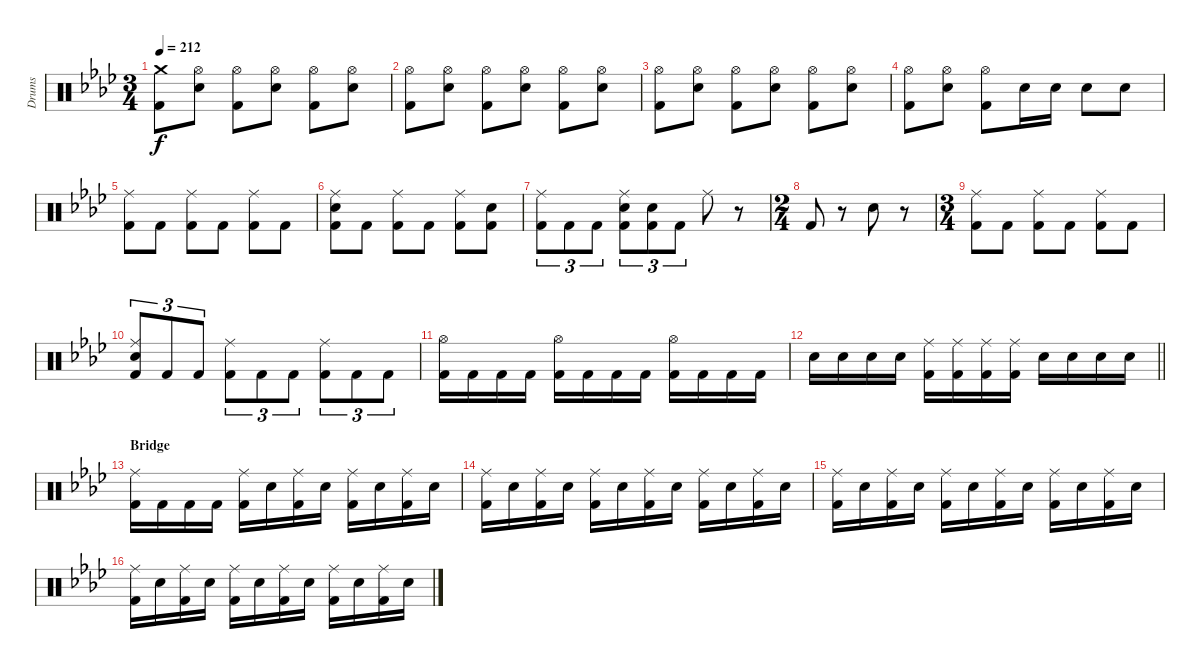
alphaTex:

\bracketExtendMode groupsimilarinstruments
\otherSystemsTrackNameOrientation horizontal
\track ("Guyot Begin-Benoit" "Drums") {instrument percussion}
\staff {score}
\articulation defaults
\ts (3 4)
\tempo 212
\clef neutral
\ks ab
("Crash medium (hit)"{acc forcenatural} "Kick (hit) 2"{acc forcenatural}).8{dy f beam Down} ("Hi-Hat (open)"{acc forcenatural} "Snare (hit) 2"{acc forcenatural}).8{beam Down} ("Hi-Hat (open)"{acc forcenatural} "Kick (hit) 2"{acc forcenatural}).8{beam Down} ("Hi-Hat (open)"{acc forcenatural} "Snare (hit) 2"{acc forcenatural}).8{beam Down} ("Hi-Hat (open)"{acc forcenatural} "Kick (hit) 2"{acc forcenatural}).8{beam Down} ("Hi-Hat (open)"{acc forcenatural} "Snare (hit) 2"{acc forcenatural}).8{beam Down} |
("Hi-Hat (open)"{acc forcenatural} "Kick (hit) 2"{acc forcenatural}).8{beam Down} ("Hi-Hat (open)"{acc forcenatural} "Snare (hit) 2"{acc forcenatural}).8{beam Down} ("Hi-Hat (open)"{acc forcenatural} "Kick (hit) 2"{acc forcenatural}).8{beam Down} ("Hi-Hat (open)"{acc forcenatural} "Snare (hit) 2"{acc forcenatural}).8{beam Down} ("Hi-Hat (open)"{acc forcenatural} "Kick (hit) 2"{acc forcenatural}).8{beam Down} ("Hi-Hat (open)"{acc forcenatural} "Snare (hit) 2"{acc forcenatural}).8{beam Down} |
("Hi-Hat (open)"{acc forcenatural} "Kick (hit) 2"{acc forcenatural}).8{beam Down} ("Hi-Hat (open)"{acc forcenatural} "Snare (hit) 2"{acc forcenatural}).8{beam Down} ("Hi-Hat (open)"{acc forcenatural} "Kick (hit) 2"{acc forcenatural}).8{beam Down} ("Hi-Hat (open)"{acc forcenatural} "Snare (hit) 2"{acc forcenatural}).8{beam Down} ("Hi-Hat (open)"{acc forcenatural} "Kick (hit) 2"{acc forcenatural}).8{beam Down} ("Hi-Hat (open)"{acc forcenatural} "Snare (hit) 2"{acc forcenatural}).8{beam Down} |
("Hi-Hat (open)"{acc forcenatural} "Kick (hit) 2"{acc forcenatural}).8{beam Down} ("Hi-Hat (open)"{acc forcenatural} "Snare (hit) 2"{acc forcenatural}).8{beam Down} ("Hi-Hat (open)"{acc forcenatural} "Kick (hit) 2"{acc forcenatural}).8{beam Down} "Snare (hit) 2"{acc forcenatural}.16{beam Down} "Snare (hit) 2"{acc forcenatural}.16{beam Down} "Snare (hit) 2"{acc forcenatural}.8{beam Down} "Snare (hit) 2"{acc forcenatural}.8{beam Down} |
("Ride (middle)"{acc forcenatural} "Kick (hit) 2"{acc forcenatural}).8{beam Down} "Kick (hit) 2"{acc forcenatural}.8{beam Down} ("Ride (middle)"{acc forcenatural} "Kick (hit) 2"{acc forcenatural}).8{beam Down} "Kick (hit) 2"{acc forcenatural}.8{beam Down} ("Ride (middle)"{acc forcenatural} "Kick (hit) 2"{acc forcenatural}).8{beam Down} "Kick (hit) 2"{acc forcenatural}.8{beam Down} |
("Ride (middle)"{acc forcenatural} "Snare (hit) 2"{acc forcenatural} "Kick (hit) 2"{acc forcenatural}).8{beam Down} "Kick (hit) 2"{acc forcenatural}.8{beam Down} ("Ride (middle)"{acc forcenatural} "Kick (hit) 2"{acc forcenatural}).8{beam Down} "Kick (hit) 2"{acc forcenatural}.8{beam Down} ("Ride (middle)"{acc forcenatural} "Kick (hit) 2"{acc forcenatural}).8{beam Down} ("Snare (hit) 2"{acc forcenatural} "Kick (hit) 2"{acc forcenatural}).8{beam Down} |
("Ride (middle)"{acc forcenatural} "Kick (hit) 2"{acc forcenatural}).8{tu (3 2) beam Down} "Kick (hit) 2"{acc forcenatural}.8{tu (3 2) beam Down} "Kick (hit) 2"{acc forcenatural}.8{tu (3 2) beam Down} ("Ride (middle)"{acc forcenatural} "Snare (hit) 2"{acc forcenatural} "Kick (hit) 2"{acc forcenatural}).8{tu (3 2) beam Down} ("Snare (hit) 2"{acc forcenatural} "Kick (hit) 2"{acc forcenatural}).8{tu (3 2) beam Down} "Kick (hit) 2"{acc forcenatural}.8{tu (3 2) beam Down} "Ride (middle)"{acc forcenatural}.8{beam Down} r.8{beam Down} |
\ts (2 4)
\beaming (8 2 2 2 2)
"Kick (hit) 2"{acc forcenatural}.8{beam Up} r.8{beam Up} "Snare (hit) 2"{acc forcenatural}.8{beam Down} r.8{beam Down} |
\ts (3 4)
\beaming (8 2 2 2 2)
("Ride (middle)"{acc forcenatural} "Kick (hit) 2"{acc forcenatural}).8{beam Down} "Kick (hit) 2"{acc forcenatural}.8{beam Down} ("Ride (middle)"{acc forcenatural} "Kick (hit) 2"{acc forcenatural}).8{beam Down} "Kick (hit) 2"{acc forcenatural}.8{beam Down} ("Ride (middle)"{acc forcenatural} "Kick (hit) 2"{acc forcenatural}).8{beam Down} "Kick (hit) 2"{acc forcenatural}.8{beam Down} |
("Ride (middle)"{acc forcenatural} "Snare (hit) 2"{acc forcenatural} "Kick (hit) 2"{acc forcenatural}).8{tu (3 2) beam Up} "Kick (hit) 2"{acc forcenatural}.8{tu (3 2) beam Up} "Kick (hit) 2"{acc forcenatural}.8{tu (3 2) beam Up} ("Ride (middle)"{acc forcenatural} "Kick (hit) 2"{acc forcenatural}).8{tu (3 2) beam Down} "Kick (hit) 2"{acc forcenatural}.8{tu (3 2) beam Down} "Kick (hit) 2"{acc forcenatural}.8{tu (3 2) beam Down} ("Ride (middle)"{acc forcenatural} "Kick (hit) 2"{acc forcenatural}).8{tu (3 2) beam Down} "Kick (hit) 2"{acc forcenatural}.8{tu (3 2) beam Down} "Kick (hit) 2"{acc forcenatural}.8{tu (3 2) beam Down} |
("Hi-Hat (open)"{acc forcenatural} "Kick (hit) 2"{acc forcenatural}).16{beam Down} "Kick (hit) 2"{acc forcenatural}.16{beam Down} "Kick (hit) 2"{acc forcenatural}.16{beam Down} "Kick (hit) 2"{acc forcenatural}.16{beam Down} ("Hi-Hat (open)"{acc forcenatural} "Kick (hit) 2"{acc forcenatural}).16{beam Down} "Kick (hit) 2"{acc forcenatural}.16{beam Down} "Kick (hit) 2"{acc forcenatural}.16{beam Down} "Kick (hit) 2"{acc forcenatural}.16{beam Down} ("Hi-Hat (open)"{acc forcenatural} "Kick (hit) 2"{acc forcenatural}).16{beam Down} "Kick (hit) 2"{acc forcenatural}.16{beam Down} "Kick (hit) 2"{acc forcenatural}.16{beam Down} "Kick (hit) 2"{acc forcenatural}.16{beam Down} |
\barLineRight lightlight "Snare (hit) 2"{acc forcenatural}.16{beam Down} "Snare (hit) 2"{acc forcenatural}.16{beam Down} "Snare (hit) 2"{acc forcenatural}.16{beam Down} "Snare (hit) 2"{acc forcenatural}.16{beam Down}
("Ride (middle)"{acc forcenatural} "Kick (hit) 2"{acc forcenatural}).16{beam Down} ("Ride (middle)"{acc forcenatural} "Kick (hit) 2"{acc forcenatural}).16{beam Down} ("Ride (middle)"{acc forcenatural} "Kick (hit) 2"{acc forcenatural}).16{beam Down} ("Ride (middle)"{acc forcenatural} "Kick (hit) 2"{acc forcenatural}).16{beam Down} "Snare (hit) 2"{acc forcenatural}.16{beam Down} "Snare (hit) 2"{acc forcenatural}.16{beam Down} "Snare (hit) 2"{acc forcenatural}.16{beam Down} "Snare (hit) 2"{acc forcenatural}.16{beam Down} |
\section ("" "Bridge")
("Ride (middle)"{acc forcenatural} "Kick (hit) 2"{acc forcenatural}).16{beam Down} "Kick (hit) 2"{acc forcenatural}.16{beam Down} "Kick (hit) 2"{acc forcenatural}.16{beam Down} "Kick (hit) 2"{acc forcenatural}.16{beam Down} ("Ride (middle)"{acc forcenatural} "Kick (hit) 2"{acc forcenatural}).16{beam Down} "Snare (hit) 2"{acc forcenatural}.16{beam Down} ("Ride (middle)"{acc forcenatural} "Kick (hit) 2"{acc forcenatural}).16{beam Down} "Snare (hit) 2"{acc forcenatural}.16{beam Down} ("Ride (middle)"{acc forcenatural} "Kick (hit) 2"{acc forcenatural}).16{beam Down} "Snare (hit) 2"{acc forcenatural}.16{beam Down} ("Ride (middle)"{acc forcenatural} "Kick (hit) 2"{acc forcenatural}).16{beam Down} "Snare (hit) 2"{acc forcenatural}.16{beam Down} |
("Ride (middle)"{acc forcenatural} "Kick (hit) 2"{acc forcenatural}).16{beam Down} "Snare (hit) 2"{acc forcenatural}.16{beam Down} ("Ride (middle)"{acc forcenatural} "Kick (hit) 2"{acc forcenatural}).16{beam Down} "Snare (hit) 2"{acc forcenatural}.16{beam Down} ("Ride (middle)"{acc forcenatural} "Kick (hit) 2"{acc forcenatural}).16{beam Down} "Snare (hit) 2"{acc forcenatural}.16{beam Down} ("Ride (middle)"{acc forcenatural} "Kick (hit) 2"{acc forcenatural}).16{beam Down} "Snare (hit) 2"{acc forcenatural}.16{beam Down} ("Ride (middle)"{acc forcenatural} "Kick (hit) 2"{acc forcenatural}).16{beam Down} "Snare (hit) 2"{acc forcenatural}.16{beam Down} ("Ride (middle)"{acc forcenatural} "Kick (hit) 2"{acc forcenatural}).16{beam Down} "Snare (hit) 2"{acc forcenatural}.16{beam Down} |
("Ride (middle)"{acc forcenatural} "Kick (hit) 2"{acc forcenatural}).16{beam Down} "Snare (hit) 2"{acc forcenatural}.16{beam Down} ("Ride (middle)"{acc forcenatural} "Kick (hit) 2"{acc forcenatural}).16{beam Down} "Snare (hit) 2"{acc forcenatural}.16{beam Down} ("Ride (middle)"{acc forcenatural} "Kick (hit) 2"{acc forcenatural}).16{beam Down} "Snare (hit) 2"{acc forcenatural}.16{beam Down} ("Ride (middle)"{acc forcenatural} "Kick (hit) 2"{acc forcenatural}).16{beam Down} "Snare (hit) 2"{acc forcenatural}.16{beam Down} ("Ride (middle)"{acc forcenatural} "Kick (hit) 2"{acc forcenatural}).16{beam Down} "Snare (hit) 2"{acc forcenatural}.16{beam Down} ("Ride (middle)"{acc forcenatural} "Kick (hit) 2"{acc forcenatural}).16{beam Down} "Snare (hit) 2"{acc forcenatural}.16{beam Down} |
("Ride (middle)"{acc forcenatural} "Kick (hit) 2"{acc forcenatural}).16{beam Down} "Snare (hit) 2"{acc forcenatural}.16{beam Down} ("Ride (middle)"{acc forcenatural} "Kick (hit) 2"{acc forcenatural}).16{beam Down} "Snare (hit) 2"{acc forcenatural}.16{beam Down} ("Ride (middle)"{acc forcenatural} "Kick (hit) 2"{acc forcenatural}).16{beam Down} "Snare (hit) 2"{acc forcenatural}.16{beam Down} ("Ride (middle)"{acc forcenatural} "Kick (hit) 2"{acc forcenatural}).16{beam Down} "Snare (hit) 2"{acc forcenatural}.16{beam Down} ("Ride (middle)"{acc forcenatural} "Kick (hit) 2"{acc forcenatural}).16{beam Down} "Snare (hit) 2"{acc forcenatural}.16{beam Down} ("Ride (middle)"{acc forcenatural} "Kick (hit) 2"{acc forcenatural}).16{beam Down} "Snare (hit) 2"{acc forcenatural}.16{beam Down}
